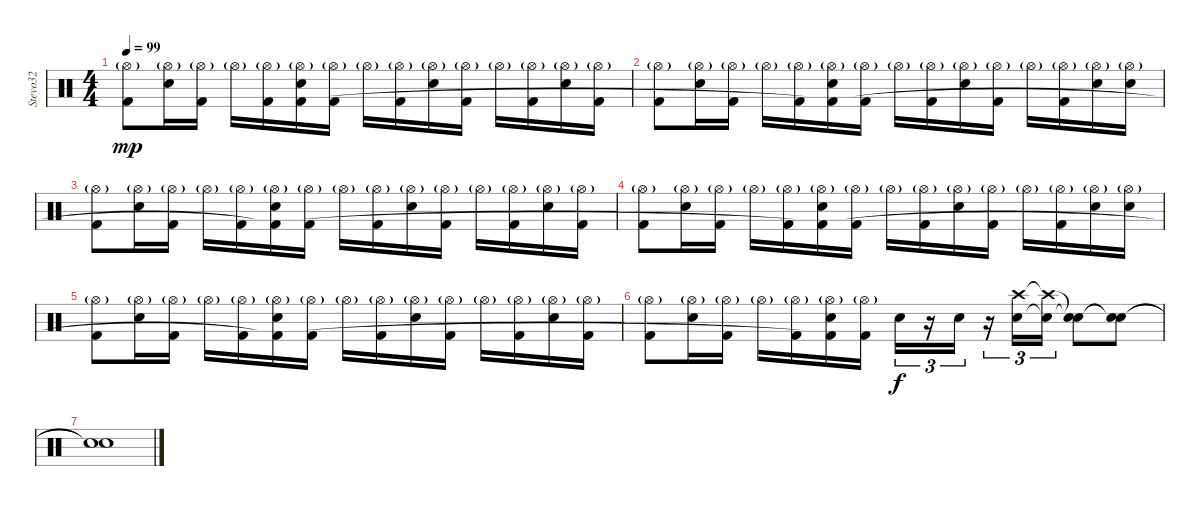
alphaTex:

\track ("Stevo32" "Stevo32") {instrument percussion}
\staff {score}
\articulation defaults
\ts (4 4)
\tempo 99
\clef neutral
\ks c
("Hi-Hat (open)"{g} "Kick (hit) 2").8{dy mp} ("Hi-Hat (open)"{g} "Electric Snare (hit)").16 ("Hi-Hat (open)"{g} "Kick (hit) 2").16 "Hi-Hat (open)"{g}.16 ("Hi-Hat (open)"{g} "Kick (hit) 2").16 ("Hi-Hat (open)"{g} "Electric Snare (hit)" "Kick (hit) 2"{t}).16 ("Hi-Hat (open)"{g} "Kick (hit) 2").16 "Hi-Hat (open)"{g}.16 ("Hi-Hat (open)"{g} "Kick (hit) 2").16 ("Hi-Hat (open)"{g} "Electric Snare (hit)").16 ("Hi-Hat (open)"{g} "Kick (hit) 2").16 "Hi-Hat (open)"{g}.16 ("Hi-Hat (open)"{g} "Kick (hit) 2").16 ("Hi-Hat (open)"{g} "Electric Snare (hit)").16 ("Hi-Hat (open)"{g} "Kick (hit) 2").16 |
("Hi-Hat (open)"{g} "Kick (hit) 2").8 ("Hi-Hat (open)"{g} "Electric Snare (hit)").16 ("Hi-Hat (open)"{g} "Kick (hit) 2").16 "Hi-Hat (open)"{g}.16 ("Hi-Hat (open)"{g} "Kick (hit) 2").16 ("Hi-Hat (open)"{g} "Electric Snare (hit)" "Kick (hit) 2"{t}).16 ("Hi-Hat (open)"{g} "Kick (hit) 2").16 "Hi-Hat (open)"{g}.16 ("Hi-Hat (open)"{g} "Kick (hit) 2").16 ("Hi-Hat (open)"{g} "Electric Snare (hit)").16 ("Hi-Hat (open)"{g} "Kick (hit) 2").16 "Hi-Hat (open)"{g}.16 ("Hi-Hat (open)"{g} "Kick (hit) 2").16 ("Hi-Hat (open)"{g} "Electric Snare (hit)").16 ("Hi-Hat (open)"{g} "Electric Snare (hit)").16 |
("Hi-Hat (open)"{g} "Kick (hit) 2").8 ("Hi-Hat (open)"{g} "Electric Snare (hit)").16 ("Hi-Hat (open)"{g} "Kick (hit) 2").16 "Hi-Hat (open)"{g}.16 ("Hi-Hat (open)"{g} "Kick (hit) 2").16 ("Hi-Hat (open)"{g} "Electric Snare (hit)" "Kick (hit) 2"{t}).16 ("Hi-Hat (open)"{g} "Kick (hit) 2").16 "Hi-Hat (open)"{g}.16 ("Hi-Hat (open)"{g} "Kick (hit) 2").16 ("Hi-Hat (open)"{g} "Electric Snare (hit)").16 ("Hi-Hat (open)"{g} "Kick (hit) 2").16 "Hi-Hat (open)"{g}.16 ("Hi-Hat (open)"{g} "Kick (hit) 2").16 ("Hi-Hat (open)"{g} "Electric Snare (hit)").16 ("Hi-Hat (open)"{g} "Kick (hit) 2").16 |
("Hi-Hat (open)"{g} "Kick (hit) 2").8 ("Hi-Hat (open)"{g} "Electric Snare (hit)").16 ("Hi-Hat (open)"{g} "Kick (hit) 2").16 "Hi-Hat (open)"{g}.16 ("Hi-Hat (open)"{g} "Kick (hit) 2").16 ("Hi-Hat (open)"{g} "Electric Snare (hit)" "Kick (hit) 2"{t}).16 ("Hi-Hat (open)"{g} "Kick (hit) 2").16 "Hi-Hat (open)"{g}.16 ("Hi-Hat (open)"{g} "Kick (hit) 2").16 ("Hi-Hat (open)"{g} "Electric Snare (hit)").16 ("Hi-Hat (open)"{g} "Kick (hit) 2").16 "Hi-Hat (open)"{g}.16 ("Hi-Hat (open)"{g} "Kick (hit) 2").16 ("Hi-Hat (open)"{g} "Electric Snare (hit)").16 ("Hi-Hat (open)"{g} "Electric Snare (hit)").16 |
("Hi-Hat (open)"{g} "Kick (hit) 2").8 ("Hi-Hat (open)"{g} "Electric Snare (hit)").16 ("Hi-Hat (open)"{g} "Kick (hit) 2").16 "Hi-Hat (open)"{g}.16 ("Hi-Hat (open)"{g} "Kick (hit) 2").16 ("Hi-Hat (open)"{g} "Electric Snare (hit)" "Kick (hit) 2"{t}).16 ("Hi-Hat (open)"{g} "Kick (hit) 2").16 "Hi-Hat (open)"{g}.16 ("Hi-Hat (open)"{g} "Kick (hit) 2").16 ("Hi-Hat (open)"{g} "Electric Snare (hit)").16 ("Hi-Hat (open)"{g} "Kick (hit) 2").16 "Hi-Hat (open)"{g}.16 ("Hi-Hat (open)"{g} "Kick (hit) 2").16 ("Hi-Hat (open)"{g} "Electric Snare (hit)").16 ("Hi-Hat (open)"{g} "Kick (hit) 2").16 |
("Hi-Hat (open)"{g} "Kick (hit) 2").8 ("Hi-Hat (open)"{g} "Electric Snare (hit)").16 ("Hi-Hat (open)"{g} "Kick (hit) 2").16 "Hi-Hat (open)"{g}.16 ("Hi-Hat (open)"{g} "Kick (hit) 2").16 ("Hi-Hat (open)"{g} "Electric Snare (hit)" "Kick (hit) 2"{t}).16 ("Hi-Hat (open)"{g} "Kick (hit) 2").16 "Electric Snare (hit)".16{tu (3 2) dy f} r.16{tu (3 2)} "Electric Snare (hit)".16{tu (3 2)} r.16{tu (3 2)} ("Crash high (hit)" "Electric Snare (hit)").16{tu (3 2)} ("Crash high (hit)"{t} "Electric Snare (hit)"{t}).16{tu (3 2)} ("Snare (hit)"{t} "Snare (hit)"{t}).8 ("Snare (hit)"{t} "Snare (hit)"{t}).8 |
("Snare (hit)"{t} "Snare (hit)"{t}).1
